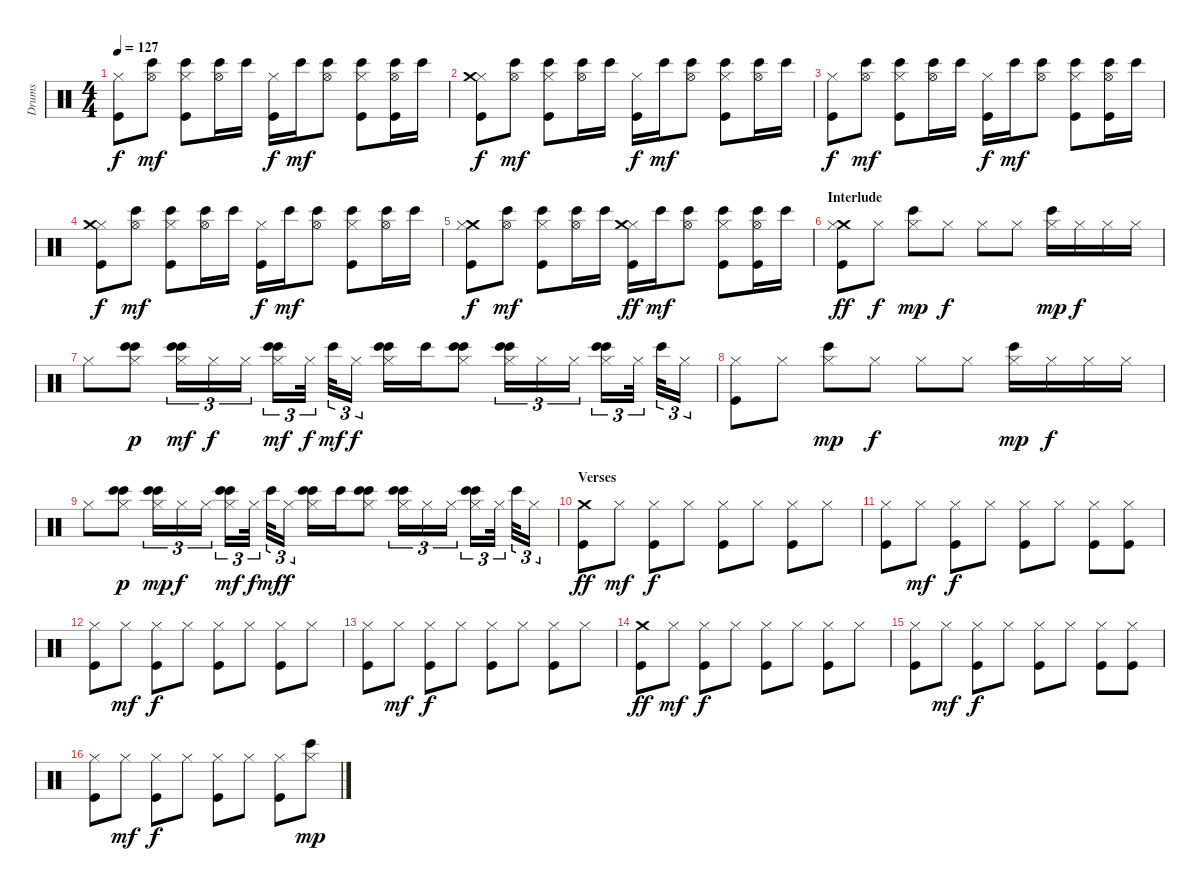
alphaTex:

\track ("Drums" "Drums") {instrument percussion}
\staff {score}
\articulation defaults
\ts (4 4)
\tempo 127
\clef neutral
\ks c
("Hi-Hat (closed)" "Kick (hit)").8{dy f} ("Bongo High (hit)" "Hi-Hat (open)").8{dy mf} ("Bongo High (hit)" "Kick (hit)" "Hi-Hat (closed)").8 ("Bongo High (hit)" "Hi-Hat (open)").16 "Bongo High (hit)".16 ("Kick (hit)" "Hi-Hat (closed)").16{dy f} "Bongo High (hit)".16{dy mf} ("Bongo High (hit)" "Hi-Hat (open)").8 ("Bongo High (hit)" "Kick (hit)" "Hi-Hat (closed)").8 ("Kick (hit)" "Bongo High (hit)" "Hi-Hat (open)").16 "Bongo High (hit)".16 |
("Kick (hit)" "Hi-Hat (closed)" "Crash medium (hit)").8{dy f} ("Bongo High (hit)" "Hi-Hat (open)").8{dy mf} ("Bongo High (hit)" "Kick (hit)" "Hi-Hat (closed)").8 ("Bongo High (hit)" "Hi-Hat (open)").16 "Bongo High (hit)".16 ("Kick (hit)" "Hi-Hat (closed)").16{dy f} "Bongo High (hit)".16{dy mf} ("Bongo High (hit)" "Hi-Hat (open)").8 ("Bongo High (hit)" "Kick (hit)" "Hi-Hat (closed)").8 ("Bongo High (hit)" "Hi-Hat (open)").16 "Bongo High (hit)".16 |
("Hi-Hat (closed)" "Kick (hit)").8{dy f} ("Bongo High (hit)" "Hi-Hat (open)").8{dy mf} ("Bongo High (hit)" "Kick (hit)" "Hi-Hat (closed)").8 ("Bongo High (hit)" "Hi-Hat (open)").16 "Bongo High (hit)".16 ("Kick (hit)" "Hi-Hat (closed)").16{dy f} "Bongo High (hit)".16{dy mf} ("Bongo High (hit)" "Hi-Hat (open)").8 ("Bongo High (hit)" "Kick (hit)" "Hi-Hat (closed)").8 ("Kick (hit)" "Bongo High (hit)" "Hi-Hat (open)").16 "Bongo High (hit)".16 |
("Hi-Hat (closed)" "Crash medium (hit)" "Kick (hit)").8{dy f} ("Bongo High (hit)" "Hi-Hat (open)").8{dy mf} ("Bongo High (hit)" "Kick (hit)" "Hi-Hat (closed)").8 ("Bongo High (hit)" "Hi-Hat (open)").16 "Bongo High (hit)".16 ("Kick (hit)" "Hi-Hat (closed)").16{dy f} "Bongo High (hit)".16{dy mf} ("Bongo High (hit)" "Hi-Hat (open)").8 ("Bongo High (hit)" "Kick (hit)" "Hi-Hat (closed)").8 ("Bongo High (hit)" "Hi-Hat (open)").16 "Bongo High (hit)".16 |
("Kick (hit)" "Crash medium (hit)" "Hi-Hat (closed)").8{dy f} ("Bongo High (hit)" "Hi-Hat (open)").8{dy mf} ("Bongo High (hit)" "Kick (hit)" "Hi-Hat (closed)").8 ("Bongo High (hit)" "Hi-Hat (open)").16 "Bongo High (hit)".16 ("Hi-Hat (closed)" "Crash medium (hit)" "Kick (hit)").16{dy ff} "Bongo High (hit)".16{dy mf} ("Bongo High (hit)" "Hi-Hat (open)").8 ("Bongo High (hit)" "Kick (hit)" "Hi-Hat (closed)").8 ("Kick (hit)" "Bongo High (hit)" "Hi-Hat (open)").16 "Bongo High (hit)".16 |
\section ("" "Interlude")
("Crash medium (hit)" "Hi-Hat (closed)" "Kick (hit)").8{dy ff} "Hi-Hat (closed)".8{dy f} ("Bongo High (hit)" "Hi-Hat (closed)").8{dy mp} "Hi-Hat (closed)".8{dy f} "Hi-Hat (closed)".8 "Hi-Hat (closed)".8 ("Bongo High (hit)" "Hi-Hat (closed)").16{dy mp} "Hi-Hat (closed)".16{dy f} "Hi-Hat (closed)".16 "Hi-Hat (closed)".16 |
"Hi-Hat (closed)".8 ("Bongo High (hit)" "Bongo High (hit)" "Hi-Hat (closed)").8{dy p} ("Hi-Hat (closed)" "Bongo High (hit)" "Bongo High (hit)").16{tu (3 2) dy mf} "Hi-Hat (closed)".16{tu (3 2) dy f} "Hi-Hat (closed)".16{tu (3 2)} ("Hi-Hat (closed)" "Bongo High (hit)" "Bongo High (hit)").16{tu (3 2) dy mf} "Hi-Hat (closed)".32{tu (3 2) dy f} "Bongo High (hit)".32{tu (3 2) dy mf} "Hi-Hat (closed)".16{tu (3 2) dy f} ("Hi-Hat (closed)" "Bongo High (hit)" "Bongo High (hit)").16 "Bongo High (hit)".16 ("Hi-Hat (closed)" "Bongo High (hit)" "Bongo High (hit)").8 ("Hi-Hat (closed)" "Bongo High (hit)" "Bongo High (hit)").16{tu (3 2)} "Hi-Hat (closed)".16{tu (3 2)} "Hi-Hat (closed)".16{tu (3 2)} ("Hi-Hat (closed)" "Bongo High (hit)" "Bongo High (hit)").16{tu (3 2)} "Hi-Hat (closed)".32{tu (3 2)} "Bongo High (hit)".32{tu (3 2)} "Hi-Hat (closed)".16{tu (3 2)} |
("Hi-Hat (closed)" "Kick (hit)").8 "Hi-Hat (closed)".8 ("Bongo High (hit)" "Hi-Hat (closed)").8{dy mp} "Hi-Hat (closed)".8{dy f} "Hi-Hat (closed)".8 "Hi-Hat (closed)".8 ("Bongo High (hit)" "Hi-Hat (closed)").16{dy mp} "Hi-Hat (closed)".16{dy f} "Hi-Hat (closed)".16 "Hi-Hat (closed)".16 |
"Hi-Hat (closed)".8 ("Bongo High (hit)" "Hi-Hat (closed)" "Bongo High (hit)").8{dy p} ("Bongo High (hit)" "Bongo High (hit)" "Hi-Hat (closed)").16{tu (3 2) dy mp} "Hi-Hat (closed)".16{tu (3 2) dy f} "Hi-Hat (closed)".16{tu (3 2)} ("Bongo High (hit)" "Hi-Hat (closed)" "Bongo High (hit)").16{tu (3 2) dy mf} "Hi-Hat (closed)".32{tu (3 2) dy f} "Bongo High (hit)".32{tu (3 2) dy mf} "Hi-Hat (closed)".16{tu (3 2) dy f} ("Hi-Hat (closed)" "Bongo High (hit)" "Bongo High (hit)").16 "Bongo High (hit)".16 ("Bongo High (hit)" "Bongo High (hit)" "Hi-Hat (closed)").8 ("Bongo High (hit)" "Bongo High (hit)" "Hi-Hat (closed)").16{tu (3 2)} "Hi-Hat (closed)".16{tu (3 2)} "Hi-Hat (closed)".16{tu (3 2)} ("Bongo High (hit)" "Bongo High (hit)" "Hi-Hat (closed)").16{tu (3 2)} "Hi-Hat (closed)".32{tu (3 2)} "Bongo High (hit)".32{tu (3 2)} "Hi-Hat (closed)".16{tu (3 2)} |
\section ("" "Verses")
("Crash medium (hit)" "Kick (hit)").8{dy ff} "Hi-Hat (closed)".8{dy mf} ("Kick (hit)" "Hi-Hat (closed)").8{dy f} "Hi-Hat (closed)".8 ("Kick (hit)" "Hi-Hat (closed)").8 "Hi-Hat (closed)".8 ("Kick (hit)" "Hi-Hat (closed)").8 "Hi-Hat (closed)".8 |
("Kick (hit)" "Hi-Hat (closed)").8 "Hi-Hat (closed)".8{dy mf} ("Kick (hit)" "Hi-Hat (closed)").8{dy f} "Hi-Hat (closed)".8 ("Kick (hit)" "Hi-Hat (closed)").8 "Hi-Hat (closed)".8 ("Kick (hit)" "Hi-Hat (closed)").8 ("Kick (hit)" "Hi-Hat (closed)").8 |
("Kick (hit)" "Hi-Hat (closed)").8 "Hi-Hat (closed)".8{dy mf} ("Kick (hit)" "Hi-Hat (closed)").8{dy f} "Hi-Hat (closed)".8 ("Kick (hit)" "Hi-Hat (closed)").8 "Hi-Hat (closed)".8 ("Kick (hit)" "Hi-Hat (closed)").8 "Hi-Hat (closed)".8 |
("Kick (hit)" "Hi-Hat (closed)").8 "Hi-Hat (closed)".8{dy mf} ("Kick (hit)" "Hi-Hat (closed)").8{dy f} "Hi-Hat (closed)".8 ("Kick (hit)" "Hi-Hat (closed)").8 "Hi-Hat (closed)".8 ("Kick (hit)" "Hi-Hat (closed)").8 "Hi-Hat (closed)".8 |
("Crash medium (hit)" "Kick (hit)").8{dy ff} "Hi-Hat (closed)".8{dy mf} ("Kick (hit)" "Hi-Hat (closed)").8{dy f} "Hi-Hat (closed)".8 ("Kick (hit)" "Hi-Hat (closed)").8 "Hi-Hat (closed)".8 ("Kick (hit)" "Hi-Hat (closed)").8 "Hi-Hat (closed)".8 |
("Kick (hit)" "Hi-Hat (closed)").8 "Hi-Hat (closed)".8{dy mf} ("Kick (hit)" "Hi-Hat (closed)").8{dy f} "Hi-Hat (closed)".8 ("Kick (hit)" "Hi-Hat (closed)").8 "Hi-Hat (closed)".8 ("Kick (hit)" "Hi-Hat (closed)").8 ("Kick (hit)" "Hi-Hat (closed)").8 |
("Kick (hit)" "Hi-Hat (closed)").8 "Hi-Hat (closed)".8{dy mf} ("Kick (hit)" "Hi-Hat (closed)").8{dy f} "Hi-Hat (closed)".8 ("Kick (hit)" "Hi-Hat (closed)").8 "Hi-Hat (closed)".8 ("Kick (hit)" "Hi-Hat (closed)").8 ("Bongo High (hit)" "Hi-Hat (closed)").8{dy mp}
